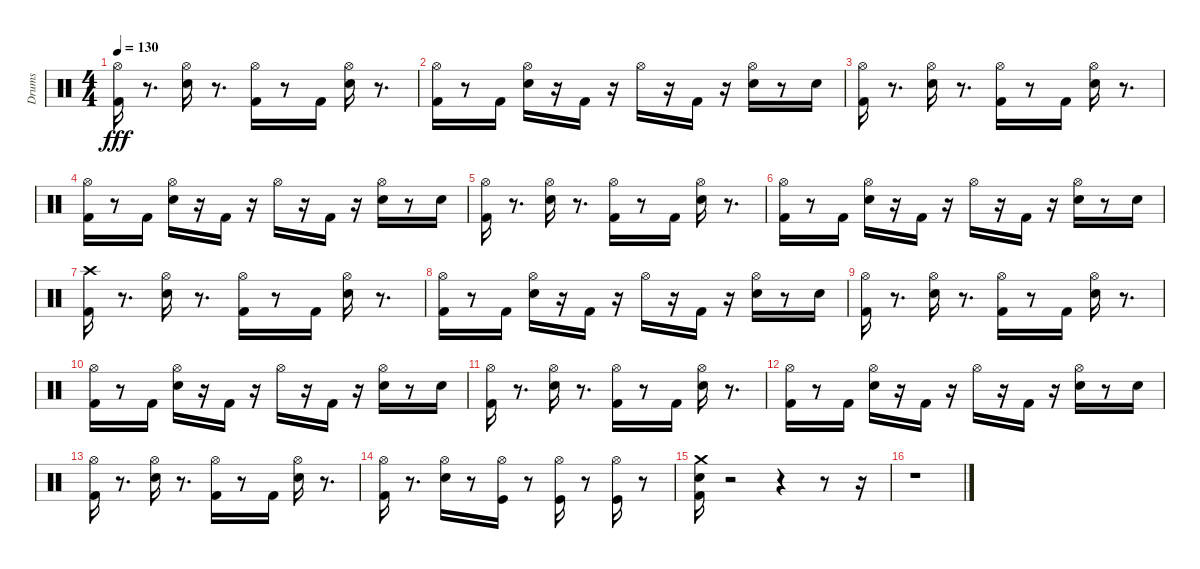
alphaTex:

\track ("Drums" "Drums") {instrument percussion}
\staff {score}
\articulation defaults
\ts (4 4)
\tempo 130
\clef neutral
\ks c
("Hi-Hat (open)" "Kick (hit) 2").16{dy fff} r.8{d} ("Hi-Hat (open)" "Snare (hit) 2").16 r.8{d} ("Hi-Hat (open)" "Kick (hit) 2").16 r.8 "Kick (hit) 2".16 ("Hi-Hat (open)" "Snare (hit) 2").16 r.8{d} |
("Hi-Hat (open)" "Kick (hit) 2").16 r.8 "Kick (hit) 2".16 ("Hi-Hat (open)" "Snare (hit) 2").16 r.16 "Kick (hit) 2".16 r.16 "Hi-Hat (open)".16 r.16 "Kick (hit) 2".16 r.16 ("Hi-Hat (open)" "Snare (hit) 2").16 r.8 "Snare (hit) 2".16 |
("Hi-Hat (open)" "Kick (hit) 2").16 r.8{d} ("Hi-Hat (open)" "Snare (hit) 2").16 r.8{d} ("Hi-Hat (open)" "Kick (hit) 2").16 r.8 "Kick (hit) 2".16 ("Hi-Hat (open)" "Snare (hit) 2").16 r.8{d} |
("Hi-Hat (open)" "Kick (hit) 2").16 r.8 "Kick (hit) 2".16 ("Hi-Hat (open)" "Snare (hit) 2").16 r.16 "Kick (hit) 2".16 r.16 "Hi-Hat (open)".16 r.16 "Kick (hit) 2".16 r.16 ("Hi-Hat (open)" "Snare (hit) 2").16 r.8 "Snare (hit) 2".16 |
("Hi-Hat (open)" "Kick (hit) 2").16 r.8{d} ("Hi-Hat (open)" "Snare (hit) 2").16 r.8{d} ("Hi-Hat (open)" "Kick (hit) 2").16 r.8 "Kick (hit) 2".16 ("Hi-Hat (open)" "Snare (hit) 2").16 r.8{d} |
("Hi-Hat (open)" "Kick (hit) 2").16 r.8 "Kick (hit) 2".16 ("Hi-Hat (open)" "Snare (hit) 2").16 r.16 "Kick (hit) 2".16 r.16 "Hi-Hat (open)".16 r.16 "Kick (hit) 2".16 r.16 ("Hi-Hat (open)" "Snare (hit) 2").16 r.8 "Snare (hit) 2".16 |
("Crash high (hit)" "Kick (hit) 2").16 r.8{d} ("Hi-Hat (open)" "Snare (hit) 2").16 r.8{d} ("Hi-Hat (open)" "Kick (hit) 2").16 r.8 "Kick (hit) 2".16 ("Hi-Hat (open)" "Snare (hit) 2").16 r.8{d} |
("Hi-Hat (open)" "Kick (hit) 2").16 r.8 "Kick (hit) 2".16 ("Hi-Hat (open)" "Snare (hit) 2").16 r.16 "Kick (hit) 2".16 r.16 "Hi-Hat (open)".16 r.16 "Kick (hit) 2".16 r.16 ("Hi-Hat (open)" "Snare (hit) 2").16 r.8 "Snare (hit) 2".16 |
("Hi-Hat (open)" "Kick (hit) 2").16 r.8{d} ("Hi-Hat (open)" "Snare (hit) 2").16 r.8{d} ("Hi-Hat (open)" "Kick (hit) 2").16 r.8 "Kick (hit) 2".16 ("Hi-Hat (open)" "Snare (hit) 2").16 r.8{d} |
("Hi-Hat (open)" "Kick (hit) 2").16 r.8 "Kick (hit) 2".16 ("Hi-Hat (open)" "Snare (hit) 2").16 r.16 "Kick (hit) 2".16 r.16 "Hi-Hat (open)".16 r.16 "Kick (hit) 2".16 r.16 ("Hi-Hat (open)" "Snare (hit) 2").16 r.8 "Snare (hit) 2".16 |
("Hi-Hat (open)" "Kick (hit) 2").16 r.8{d} ("Hi-Hat (open)" "Snare (hit) 2").16 r.8{d} ("Hi-Hat (open)" "Kick (hit) 2").16 r.8 "Kick (hit) 2".16 ("Hi-Hat (open)" "Snare (hit) 2").16 r.8{d} |
("Hi-Hat (open)" "Kick (hit) 2").16 r.8 "Kick (hit) 2".16 ("Hi-Hat (open)" "Snare (hit) 2").16 r.16 "Kick (hit) 2".16 r.16 "Hi-Hat (open)".16 r.16 "Kick (hit) 2".16 r.16 ("Hi-Hat (open)" "Snare (hit) 2").16 r.8 "Snare (hit) 2".16 |
("Hi-Hat (open)" "Kick (hit) 2").16 r.8{d} ("Hi-Hat (open)" "Snare (hit) 2").16 r.8{d} ("Hi-Hat (open)" "Kick (hit) 2").16 r.8 "Kick (hit) 2".16 ("Hi-Hat (open)" "Snare (hit) 2").16 r.8{d} |
("Hi-Hat (open)" "Kick (hit) 2").16 r.8{d} ("Hi-Hat (open)" "Snare (hit) 2").16 r.8 ("Hi-Hat (open)" "Kick (hit)").16 r.8 ("Hi-Hat (open)" "Kick (hit)").16 r.8 ("Hi-Hat (open)" "Kick (hit)").16 r.8 |
("Crash medium (hit)" "Snare (hit) 2" "Kick (hit) 2").16 r.2 r.4 r.8 r.16 |
r.1
